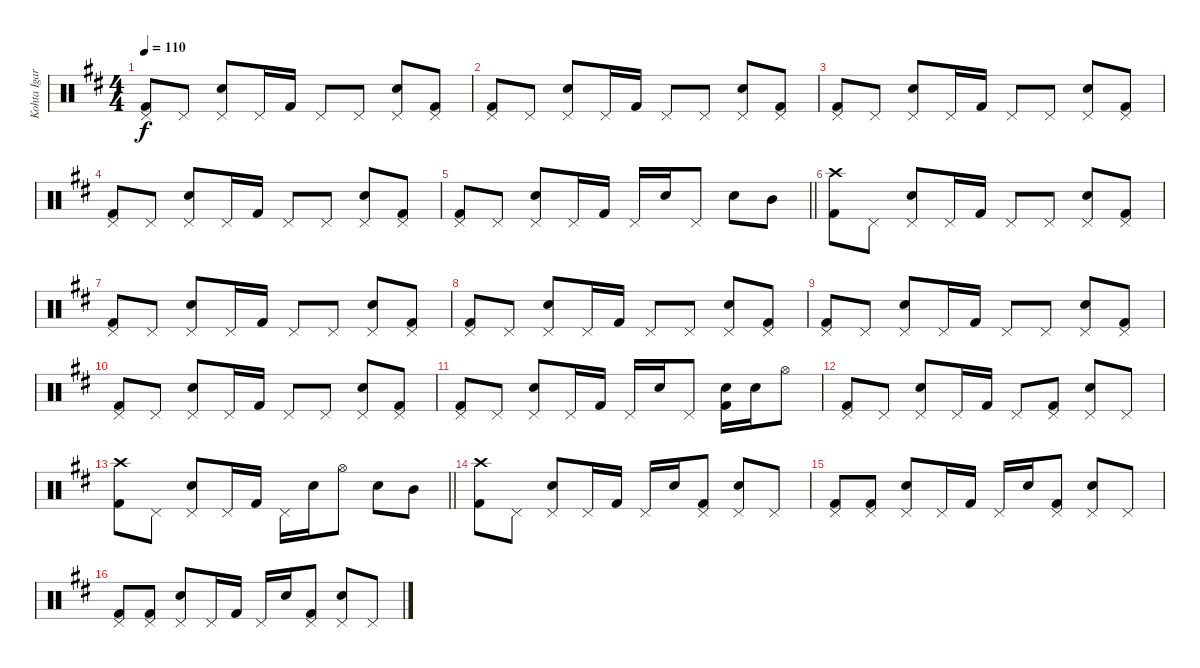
\track ("Kohta Igarashi" "Kohta Igar") {instrument percussion}
\staff {score}
\articulation defaults
\ts (4 4)
\tempo 110
\clef neutral
\ks d
("Pedal Hi-Hat (hit)" "Kick (hit) 2").8{dy f} "Pedal Hi-Hat (hit)".8 ("Pedal Hi-Hat (hit)" "Electric Snare (hit)").8 "Pedal Hi-Hat (hit)".16 "Kick (hit) 2".16 "Pedal Hi-Hat (hit)".8 "Pedal Hi-Hat (hit)".8 ("Pedal Hi-Hat (hit)" "Electric Snare (hit)").8 ("Pedal Hi-Hat (hit)" "Kick (hit) 2").8 |
("Pedal Hi-Hat (hit)" "Kick (hit) 2").8 "Pedal Hi-Hat (hit)".8 ("Pedal Hi-Hat (hit)" "Electric Snare (hit)").8 "Pedal Hi-Hat (hit)".16 "Kick (hit) 2".16 "Pedal Hi-Hat (hit)".8 "Pedal Hi-Hat (hit)".8 ("Pedal Hi-Hat (hit)" "Electric Snare (hit)").8 ("Pedal Hi-Hat (hit)" "Kick (hit) 2").8 |
("Pedal Hi-Hat (hit)" "Kick (hit) 2").8 "Pedal Hi-Hat (hit)".8 ("Pedal Hi-Hat (hit)" "Electric Snare (hit)").8 "Pedal Hi-Hat (hit)".16 "Kick (hit) 2".16 "Pedal Hi-Hat (hit)".8 "Pedal Hi-Hat (hit)".8 ("Pedal Hi-Hat (hit)" "Electric Snare (hit)").8 ("Pedal Hi-Hat (hit)" "Kick (hit) 2").8 |
("Pedal Hi-Hat (hit)" "Kick (hit) 2").8 "Pedal Hi-Hat (hit)".8 ("Pedal Hi-Hat (hit)" "Electric Snare (hit)").8 "Pedal Hi-Hat (hit)".16 "Kick (hit) 2".16 "Pedal Hi-Hat (hit)".8 "Pedal Hi-Hat (hit)".8 ("Pedal Hi-Hat (hit)" "Electric Snare (hit)").8 ("Pedal Hi-Hat (hit)" "Kick (hit) 2").8 |
\barLineRight lightlight
("Pedal Hi-Hat (hit)" "Kick (hit) 2").8 "Pedal Hi-Hat (hit)".8 ("Pedal Hi-Hat (hit)" "Electric Snare (hit)").8 "Pedal Hi-Hat (hit)".16 "Kick (hit) 2".16 "Pedal Hi-Hat (hit)".16 "Electric Snare (hit)".16 "Pedal Hi-Hat (hit)".8 "Electric Snare (hit)".8 "Mid Tom (hit)".8 |
("Crash high (hit)" "Kick (hit) 2").8 "Pedal Hi-Hat (hit)".8 ("Pedal Hi-Hat (hit)" "Electric Snare (hit)").8 "Pedal Hi-Hat (hit)".16 "Kick (hit) 2".16 "Pedal Hi-Hat (hit)".8 "Pedal Hi-Hat (hit)".8 ("Pedal Hi-Hat (hit)" "Electric Snare (hit)").8 ("Pedal Hi-Hat (hit)" "Kick (hit) 2").8 |
("Pedal Hi-Hat (hit)" "Kick (hit) 2").8 "Pedal Hi-Hat (hit)".8 ("Pedal Hi-Hat (hit)" "Electric Snare (hit)").8 "Pedal Hi-Hat (hit)".16 "Kick (hit) 2".16 "Pedal Hi-Hat (hit)".8 "Pedal Hi-Hat (hit)".8 ("Pedal Hi-Hat (hit)" "Electric Snare (hit)").8 ("Pedal Hi-Hat (hit)" "Kick (hit) 2").8 |
("Pedal Hi-Hat (hit)" "Kick (hit) 2").8 "Pedal Hi-Hat (hit)".8 ("Pedal Hi-Hat (hit)" "Electric Snare (hit)").8 "Pedal Hi-Hat (hit)".16 "Kick (hit) 2".16 "Pedal Hi-Hat (hit)".8 "Pedal Hi-Hat (hit)".8 ("Pedal Hi-Hat (hit)" "Electric Snare (hit)").8 ("Pedal Hi-Hat (hit)" "Kick (hit) 2").8 |
("Pedal Hi-Hat (hit)" "Kick (hit) 2").8 "Pedal Hi-Hat (hit)".8 ("Pedal Hi-Hat (hit)" "Electric Snare (hit)").8 "Pedal Hi-Hat (hit)".16 "Kick (hit) 2".16 "Pedal Hi-Hat (hit)".8 "Pedal Hi-Hat (hit)".8 ("Pedal Hi-Hat (hit)" "Electric Snare (hit)").8 ("Pedal Hi-Hat (hit)" "Kick (hit) 2").8 |
("Pedal Hi-Hat (hit)" "Kick (hit) 2").8 "Pedal Hi-Hat (hit)".8 ("Pedal Hi-Hat (hit)" "Electric Snare (hit)").8 "Pedal Hi-Hat (hit)".16 "Kick (hit) 2".16 "Pedal Hi-Hat (hit)".8 "Pedal Hi-Hat (hit)".8 ("Pedal Hi-Hat (hit)" "Electric Snare (hit)").8 ("Pedal Hi-Hat (hit)" "Kick (hit) 2").8 |
("Pedal Hi-Hat (hit)" "Kick (hit) 2").8 "Pedal Hi-Hat (hit)".8 ("Pedal Hi-Hat (hit)" "Electric Snare (hit)").8 "Pedal Hi-Hat (hit)".16 "Kick (hit) 2".16 "Pedal Hi-Hat (hit)".16 "Electric Snare (hit)".16 "Pedal Hi-Hat (hit)".8 ("Electric Snare (hit)" "Kick (hit) 2").16 "Electric Snare (hit)".16 "Hi-Hat (open)".8 |
("Pedal Hi-Hat (hit)" "Kick (hit) 2").8 "Pedal Hi-Hat (hit)".8 ("Pedal Hi-Hat (hit)" "Electric Snare (hit)").8 "Pedal Hi-Hat (hit)".16 "Kick (hit) 2".16 "Pedal Hi-Hat (hit)".8 ("Pedal Hi-Hat (hit)" "Kick (hit) 2").8 ("Pedal Hi-Hat (hit)" "Electric Snare (hit)").8 "Pedal Hi-Hat (hit)".8 |
\barLineRight lightlight
("Crash high (hit)" "Kick (hit) 2").8 "Pedal Hi-Hat (hit)".8 ("Pedal Hi-Hat (hit)" "Electric Snare (hit)").8 "Pedal Hi-Hat (hit)".16 "Kick (hit) 2".16 "Pedal Hi-Hat (hit)".16 "Electric Snare (hit)".16 "Hi-Hat (open)".8 "Electric Snare (hit)".8 "Mid Tom (hit)".8 |
("Crash high (hit)" "Kick (hit) 2").8 "Pedal Hi-Hat (hit)".8 ("Pedal Hi-Hat (hit)" "Electric Snare (hit)").8 "Pedal Hi-Hat (hit)".16 "Kick (hit) 2".16 "Pedal Hi-Hat (hit)".16 "Electric Snare (hit)".16 ("Pedal Hi-Hat (hit)" "Kick (hit) 2").8 ("Pedal Hi-Hat (hit)" "Electric Snare (hit)").8 "Pedal Hi-Hat (hit)".8 |
("Pedal Hi-Hat (hit)" "Kick (hit) 2").8 ("Pedal Hi-Hat (hit)" "Kick (hit) 2").8 ("Pedal Hi-Hat (hit)" "Electric Snare (hit)").8 "Pedal Hi-Hat (hit)".16 "Kick (hit) 2".16 "Pedal Hi-Hat (hit)".16 "Electric Snare (hit)".16 ("Pedal Hi-Hat (hit)" "Kick (hit) 2").8 ("Pedal Hi-Hat (hit)" "Electric Snare (hit)").8 "Pedal Hi-Hat (hit)".8 |
("Pedal Hi-Hat (hit)" "Kick (hit) 2").8 ("Pedal Hi-Hat (hit)" "Kick (hit) 2").8 ("Pedal Hi-Hat (hit)" "Electric Snare (hit)").8 "Pedal Hi-Hat (hit)".16 "Kick (hit) 2".16 "Pedal Hi-Hat (hit)".16 "Electric Snare (hit)".16 ("Pedal Hi-Hat (hit)" "Kick (hit) 2").8 ("Pedal Hi-Hat (hit)" "Electric Snare (hit)").8 "Pedal Hi-Hat (hit)".8
